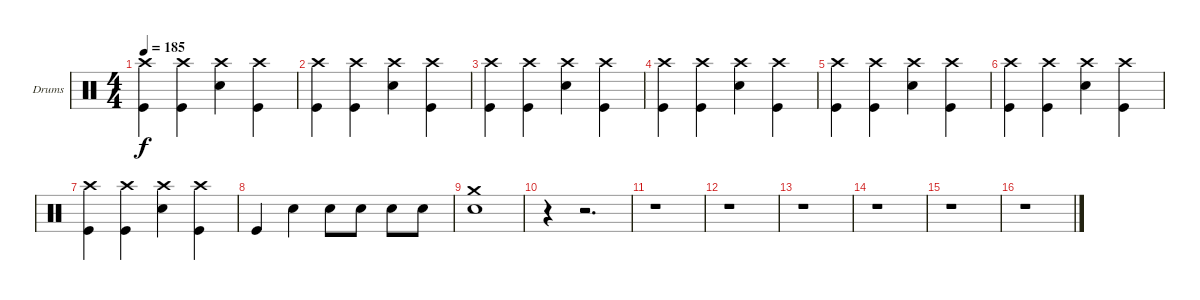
\defaultSystemsLayout 4
\bracketExtendMode groupsimilarinstruments
\firstSystemTrackNameOrientation horizontal
\otherSystemsTrackNameOrientation horizontal
\track ("Chuck Comeau" "Drums") {instrument percussion}
\staff {score}
\articulation defaults
\ts (4 4)
\tempo 185
\clef neutral
\scale
0.333333
\ks c
("Crash high (hit)" "Kick (hit)").4{dy f} ("Crash high (hit)" "Kick (hit)").4 ("Crash high (hit)" "Snare (hit) 2").4 ("Crash high (hit)" "Kick (hit)").4 |
\scale
0.333333 ("Crash high (hit)" "Kick (hit)").4 ("Crash high (hit)" "Kick (hit)").4 ("Crash high (hit)" "Snare (hit) 2").4 ("Crash high (hit)" "Kick (hit)").4 |
\scale
0.333333 ("Crash high (hit)" "Kick (hit)").4 ("Crash high (hit)" "Kick (hit)").4 ("Crash high (hit)" "Snare (hit) 2").4 ("Crash high (hit)" "Kick (hit)").4 |
\scale
0.333333 ("Crash high (hit)" "Kick (hit)").4 ("Crash high (hit)" "Kick (hit)").4 ("Crash high (hit)" "Snare (hit) 2").4 ("Crash high (hit)" "Kick (hit)").4 |
\scale
0.333333 ("Crash high (hit)" "Kick (hit)").4 ("Crash high (hit)" "Kick (hit)").4 ("Crash high (hit)" "Snare (hit) 2").4 ("Crash high (hit)" "Kick (hit)").4 |
\scale
0.333333 ("Crash high (hit)" "Kick (hit)").4 ("Crash high (hit)" "Kick (hit)").4 ("Crash high (hit)" "Snare (hit) 2").4 ("Crash high (hit)" "Kick (hit)").4 |
\scale
0.333333 ("Crash high (hit)" "Kick (hit)").4 ("Crash high (hit)" "Kick (hit)").4 ("Crash high (hit)" "Snare (hit) 2").4 ("Crash high (hit)" "Kick (hit)").4 |
\scale
0.333333 "Kick (hit)".4 "Snare (hit) 2".4 "Snare (hit) 2".8 "Snare (hit) 2".8 "Snare (hit) 2".8 "Snare (hit) 2".8 |
\scale
0.333333 ("Crash medium (hit)" "Snare (hit) 2").1 |
\scale
0.333333 r.4 r.2{d} |
\scale
0.333333 r.1 |
\scale
0.333333 r.1 |
\scale
0.333333 r.1 |
\scale
0.333333 r.1 |
\scale
0.333333 r.1 |
r.1
